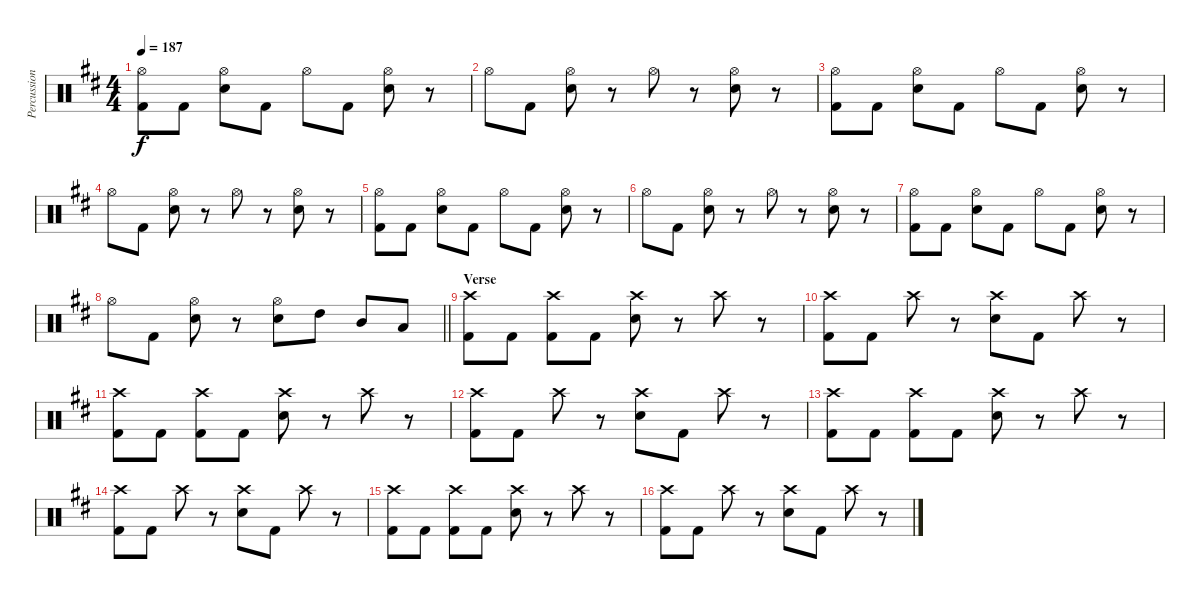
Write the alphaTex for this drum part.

\track ("Percussion" "Percussion") {instrument percussion}
\staff {score}
\articulation defaults
\ts (4 4)
\tempo 187
\clef neutral
\ks d
("Hi-Hat (open)" "Kick (hit) 2").8{dy f} "Kick (hit) 2".8 ("Hi-Hat (open)" "Snare (hit) 2").8 "Kick (hit) 2".8 "Hi-Hat (open)".8 "Kick (hit) 2".8 ("Hi-Hat (open)" "Snare (hit) 2").8 r.8 |
"Hi-Hat (open)".8 "Kick (hit) 2".8 ("Hi-Hat (open)" "Snare (hit) 2").8 r.8 "Hi-Hat (open)".8 r.8 ("Hi-Hat (open)" "Snare (hit) 2").8 r.8 |
("Hi-Hat (open)" "Kick (hit) 2").8 "Kick (hit) 2".8 ("Hi-Hat (open)" "Snare (hit) 2").8 "Kick (hit) 2".8 "Hi-Hat (open)".8 "Kick (hit) 2".8 ("Hi-Hat (open)" "Snare (hit) 2").8 r.8 |
"Hi-Hat (open)".8 "Kick (hit) 2".8 ("Hi-Hat (open)" "Snare (hit) 2").8 r.8 "Hi-Hat (open)".8 r.8 ("Hi-Hat (open)" "Snare (hit) 2").8 r.8 |
("Hi-Hat (open)" "Kick (hit) 2").8 "Kick (hit) 2".8 ("Hi-Hat (open)" "Snare (hit) 2").8 "Kick (hit) 2".8 "Hi-Hat (open)".8 "Kick (hit) 2".8 ("Hi-Hat (open)" "Snare (hit) 2").8 r.8 |
"Hi-Hat (open)".8 "Kick (hit) 2".8 ("Hi-Hat (open)" "Snare (hit) 2").8 r.8 "Hi-Hat (open)".8 r.8 ("Hi-Hat (open)" "Snare (hit) 2").8 r.8 |
("Hi-Hat (open)" "Kick (hit) 2").8 "Kick (hit) 2".8 ("Hi-Hat (open)" "Snare (hit) 2").8 "Kick (hit) 2".8 "Hi-Hat (open)".8 "Kick (hit) 2".8 ("Hi-Hat (open)" "Snare (hit) 2").8 r.8 |
\barLineRight lightlight "Hi-Hat (open)".8 "Kick (hit) 2".8
("Hi-Hat (open)" "Snare (hit) 2").8 r.8 ("Hi-Hat (open)" "Snare (hit) 2").8 "High Tom (hit)".8 "Mid Tom (hit)".8 "Low Tom (hit)".8 |
\section ("" "Verse")
("Crash high (hit)" "Kick (hit) 2").8 "Kick (hit) 2".8 ("Crash high (hit)" "Kick (hit) 2").8 "Kick (hit) 2".8 ("Crash high (hit)" "Snare (hit) 2").8 r.8 "Crash high (hit)".8 r.8 |
("Crash high (hit)" "Kick (hit) 2").8 "Kick (hit) 2".8 "Crash high (hit)".8 r.8 ("Crash high (hit)" "Snare (hit) 2").8 "Kick (hit) 2".8 "Crash high (hit)".8 r.8 |
("Crash high (hit)" "Kick (hit) 2").8 "Kick (hit) 2".8 ("Crash high (hit)" "Kick (hit) 2").8 "Kick (hit) 2".8 ("Crash high (hit)" "Snare (hit) 2").8 r.8 "Crash high (hit)".8 r.8 |
("Crash high (hit)" "Kick (hit) 2").8 "Kick (hit) 2".8 "Crash high (hit)".8 r.8 ("Crash high (hit)" "Snare (hit) 2").8 "Kick (hit) 2".8 "Crash high (hit)".8 r.8 |
("Crash high (hit)" "Kick (hit) 2").8 "Kick (hit) 2".8 ("Crash high (hit)" "Kick (hit) 2").8 "Kick (hit) 2".8 ("Crash high (hit)" "Snare (hit) 2").8 r.8 "Crash high (hit)".8 r.8 |
("Crash high (hit)" "Kick (hit) 2").8 "Kick (hit) 2".8 "Crash high (hit)".8 r.8 ("Crash high (hit)" "Snare (hit) 2").8 "Kick (hit) 2".8 "Crash high (hit)".8 r.8 |
("Crash high (hit)" "Kick (hit) 2").8 "Kick (hit) 2".8 ("Crash high (hit)" "Kick (hit) 2").8 "Kick (hit) 2".8 ("Crash high (hit)" "Snare (hit) 2").8 r.8 "Crash high (hit)".8 r.8 |
("Crash high (hit)" "Kick (hit) 2").8 "Kick (hit) 2".8 "Crash high (hit)".8 r.8 ("Crash high (hit)" "Snare (hit) 2").8 "Kick (hit) 2".8 "Crash high (hit)".8 r.8
